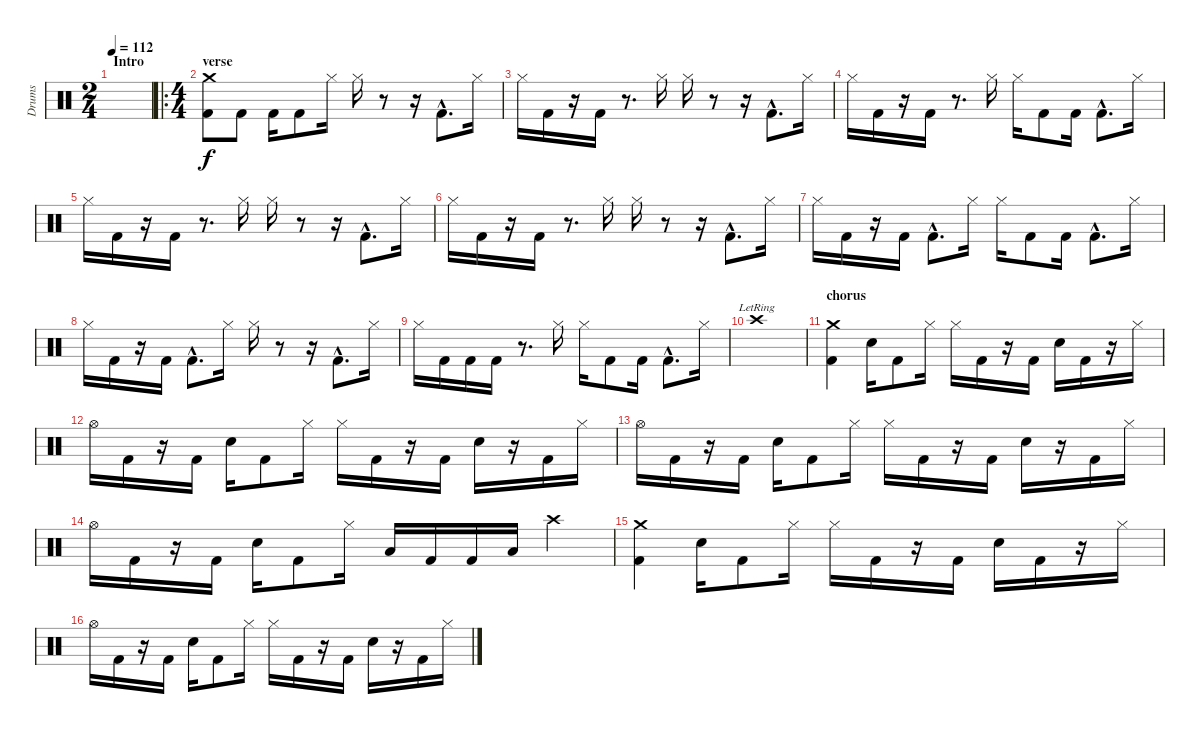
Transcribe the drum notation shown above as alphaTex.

\track ("Drums" "Drums") {instrument percussion}
\staff {score}
\articulation defaults
\ts (2 4)
\section ("" "Intro")
\tempo 112
\clef neutral
\ks c
|
\ro
\ts (4 4)
\section ("" "verse")
("Crash medium (hit)" "Kick (hit) 2").8 "Kick (hit) 2".8 "Kick (hit) 2".16 "Kick (hit) 2".8 "Hi-Hat (closed)".16 "Hi-Hat (closed)".16 r.8 r.16 "Kick (hit) 2"{hac}.8{d} "Hi-Hat (closed)".16 |
"Hi-Hat (closed)".16 "Kick (hit) 2".16 r.16 "Kick (hit) 2".16 r.8{d} "Hi-Hat (closed)".16 "Hi-Hat (closed)".16 r.8 r.16 "Kick (hit) 2"{hac}.8{d} "Hi-Hat (closed)".16 |
"Hi-Hat (closed)".16 "Kick (hit) 2".16 r.16 "Kick (hit) 2".16 r.8{d} "Hi-Hat (closed)".16 "Hi-Hat (closed)".16 "Kick (hit) 2".8 "Kick (hit) 2".16 "Kick (hit) 2"{hac}.8{d} "Hi-Hat (closed)".16 |
"Hi-Hat (closed)".16 "Kick (hit) 2".16 r.16 "Kick (hit) 2".16 r.8{d} "Hi-Hat (closed)".16 "Hi-Hat (closed)".16 r.8 r.16 "Kick (hit) 2"{hac}.8{d} "Hi-Hat (closed)".16 |
"Hi-Hat (closed)".16 "Kick (hit) 2".16 r.16 "Kick (hit) 2".16 r.8{d} "Hi-Hat (closed)".16 "Hi-Hat (closed)".16 r.8 r.16 "Kick (hit) 2"{hac}.8{d} "Hi-Hat (closed)".16 |
"Hi-Hat (closed)".16 "Kick (hit) 2".16 r.16 "Kick (hit) 2".16 "Kick (hit) 2"{hac}.8{d} "Hi-Hat (closed)".16 "Hi-Hat (closed)".16 "Kick (hit) 2".8 "Kick (hit) 2".16 "Kick (hit) 2"{hac}.8{d} "Hi-Hat (closed)".16 |
"Hi-Hat (closed)".16 "Kick (hit) 2".16 r.16 "Kick (hit) 2".16 "Kick (hit) 2"{hac}.8{d} "Hi-Hat (closed)".16 "Hi-Hat (closed)".16 r.8 r.16 "Kick (hit) 2"{hac}.8{d} "Hi-Hat (closed)".16 |
"Hi-Hat (closed)".16 "Kick (hit) 2".16 "Kick (hit) 2".16 "Kick (hit) 2".16 r.8{d} "Hi-Hat (closed)".16 "Hi-Hat (closed)".16 "Kick (hit) 2".8 "Kick (hit) 2".16 "Kick (hit) 2"{hac}.8{d} "Hi-Hat (closed)".16 |
"Crash high (hit)"{lr}.1 |
\section ("" "chorus")
("Crash medium (hit)" "Kick (hit) 2").4 "Electric Snare (hit)".16 "Kick (hit) 2".8 "Hi-Hat (closed)".16 "Hi-Hat (closed)".16 "Kick (hit) 2".16 r.16 "Kick (hit) 2".16 "Electric Snare (hit)".16 "Kick (hit) 2".16 r.16 "Hi-Hat (closed)".16 |
"Hi-Hat (open)".16 "Kick (hit) 2".16 r.16 "Kick (hit) 2".16 "Electric Snare (hit)".16 "Kick (hit) 2".8 "Hi-Hat (closed)".16 "Hi-Hat (closed)".16 "Kick (hit) 2".16 r.16 "Kick (hit) 2".16 "Electric Snare (hit)".16 r.16 "Kick (hit) 2".16 "Hi-Hat (closed)".16 |
"Hi-Hat (open)".16 "Kick (hit) 2".16 r.16 "Kick (hit) 2".16 "Electric Snare (hit)".16 "Kick (hit) 2".8 "Hi-Hat (closed)".16 "Hi-Hat (closed)".16 "Kick (hit) 2".16 r.16 "Kick (hit) 2".16 "Electric Snare (hit)".16 r.16 "Kick (hit) 2".16 "Hi-Hat (closed)".16 |
"Hi-Hat (open)".16 "Kick (hit) 2".16 r.16 "Kick (hit) 2".16 "Electric Snare (hit)".16 "Kick (hit) 2".8 "Hi-Hat (closed)".16 "Low Floor Tom (hit)".16 "Kick (hit) 2".16 "Kick (hit) 2".16 "Low Floor Tom (hit)".16 "Crash high (hit)".4 |
("Crash medium (hit)" "Kick (hit) 2").4 "Electric Snare (hit)".16 "Kick (hit) 2".8 "Hi-Hat (closed)".16 "Hi-Hat (closed)".16 "Kick (hit) 2".16 r.16 "Kick (hit) 2".16 "Electric Snare (hit)".16 "Kick (hit) 2".16 r.16 "Hi-Hat (closed)".16 |
"Hi-Hat (open)".16 "Kick (hit) 2".16 r.16 "Kick (hit) 2".16 "Electric Snare (hit)".16 "Kick (hit) 2".8 "Hi-Hat (closed)".16 "Hi-Hat (closed)".16 "Kick (hit) 2".16 r.16 "Kick (hit) 2".16 "Electric Snare (hit)".16 r.16 "Kick (hit) 2".16 "Hi-Hat (closed)".16
